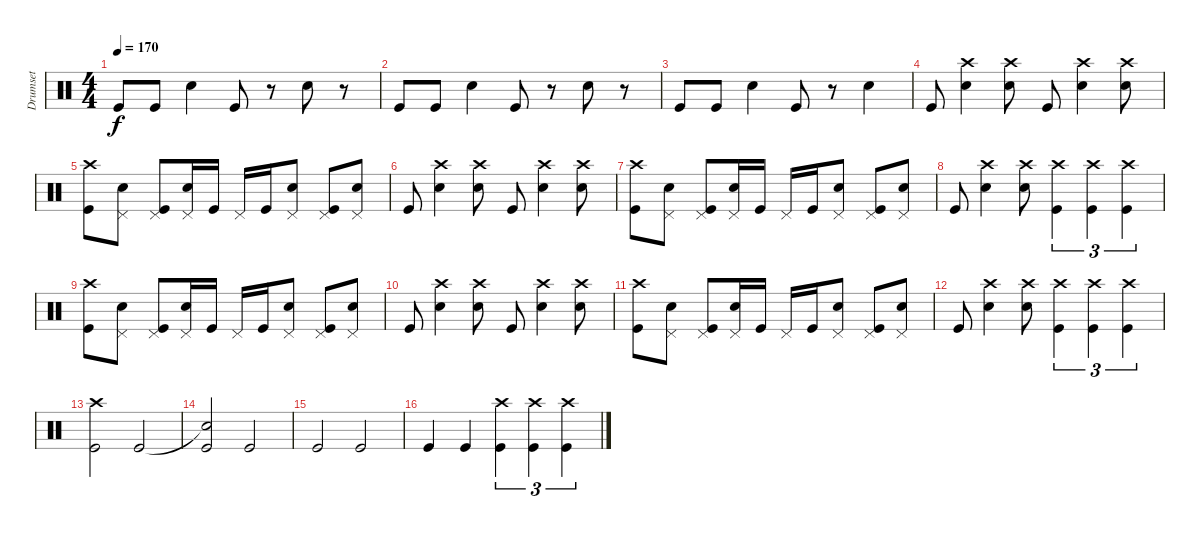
\track ("Drumset" "Drumset") {instrument percussion}
\staff {score}
\articulation defaults
\ts (4 4)
\tempo 170
\clef neutral
\ks c "Kick (hit)".8{dy f} "Kick (hit)".8 "Electric Snare (hit)".4 "Kick (hit)".8
r.8 "Electric Snare (hit)".8 r.8 |
"Kick (hit)".8 "Kick (hit)".8 "Electric Snare (hit)".4 "Kick (hit)".8 r.8 "Electric Snare (hit)".8 r.8 |
"Kick (hit)".8 "Kick (hit)".8 "Electric Snare (hit)".4 "Kick (hit)".8 r.8 "Electric Snare (hit)".4 |
"Kick (hit)".8 ("Crash high (hit)" "Electric Snare (hit)").4 ("Crash high (hit)" "Electric Snare (hit)").8 "Kick (hit)".8 ("Crash high (hit)" "Electric Snare (hit)").4 ("Crash high (hit)" "Electric Snare (hit)").8 |
("Crash high (hit)" "Kick (hit)").8 ("Pedal Hi-Hat (hit)" "Electric Snare (hit)").8 ("Pedal Hi-Hat (hit)" "Kick (hit)").8 ("Pedal Hi-Hat (hit)" "Electric Snare (hit)").16 "Kick (hit)".16 "Pedal Hi-Hat (hit)".16 "Kick (hit)".16 ("Pedal Hi-Hat (hit)" "Electric Snare (hit)").8 ("Pedal Hi-Hat (hit)" "Kick (hit)").8 ("Pedal Hi-Hat (hit)" "Electric Snare (hit)").8 |
"Kick (hit)".8 ("Crash high (hit)" "Electric Snare (hit)").4 ("Crash high (hit)" "Electric Snare (hit)").8 "Kick (hit)".8 ("Crash high (hit)" "Electric Snare (hit)").4 ("Crash high (hit)" "Electric Snare (hit)").8 |
("Crash high (hit)" "Kick (hit)").8 ("Pedal Hi-Hat (hit)" "Electric Snare (hit)").8 ("Pedal Hi-Hat (hit)" "Kick (hit)").8 ("Pedal Hi-Hat (hit)" "Electric Snare (hit)").16 "Kick (hit)".16 "Pedal Hi-Hat (hit)".16 "Kick (hit)".16 ("Pedal Hi-Hat (hit)" "Electric Snare (hit)").8 ("Pedal Hi-Hat (hit)" "Kick (hit)").8 ("Pedal Hi-Hat (hit)" "Electric Snare (hit)").8 |
"Kick (hit)".8 ("Crash high (hit)" "Electric Snare (hit)").4 ("Crash high (hit)" "Electric Snare (hit)").8 ("Crash high (hit)" "Kick (hit)").4{tu (3 2)} ("Crash high (hit)" "Kick (hit)").4{tu (3 2)} ("Crash high (hit)" "Kick (hit)").4{tu (3 2)} |
("Crash high (hit)" "Kick (hit)").8 ("Pedal Hi-Hat (hit)" "Electric Snare (hit)").8 ("Pedal Hi-Hat (hit)" "Kick (hit)").8 ("Pedal Hi-Hat (hit)" "Electric Snare (hit)").16 "Kick (hit)".16 "Pedal Hi-Hat (hit)".16 "Kick (hit)".16 ("Pedal Hi-Hat (hit)" "Electric Snare (hit)").8 ("Pedal Hi-Hat (hit)" "Kick (hit)").8 ("Pedal Hi-Hat (hit)" "Electric Snare (hit)").8 |
"Kick (hit)".8 ("Crash high (hit)" "Electric Snare (hit)").4 ("Crash high (hit)" "Electric Snare (hit)").8 "Kick (hit)".8 ("Crash high (hit)" "Electric Snare (hit)").4 ("Crash high (hit)" "Electric Snare (hit)").8 |
("Crash high (hit)" "Kick (hit)").8 ("Pedal Hi-Hat (hit)" "Electric Snare (hit)").8 ("Pedal Hi-Hat (hit)" "Kick (hit)").8 ("Pedal Hi-Hat (hit)" "Electric Snare (hit)").16 "Kick (hit)".16 "Pedal Hi-Hat (hit)".16 "Kick (hit)".16 ("Pedal Hi-Hat (hit)" "Electric Snare (hit)").8 ("Pedal Hi-Hat (hit)" "Kick (hit)").8 ("Pedal Hi-Hat (hit)" "Electric Snare (hit)").8 |
"Kick (hit)".8 ("Crash high (hit)" "Electric Snare (hit)").4 ("Crash high (hit)" "Electric Snare (hit)").8 ("Crash high (hit)" "Kick (hit)").4{tu (3 2)} ("Crash high (hit)" "Kick (hit)").4{tu (3 2)} ("Crash high (hit)" "Kick (hit)").4{tu (3 2)} |
("Crash high (hit)" "Kick (hit)").2 "Kick (hit)".2 |
("Snare (hit)"{t} "Kick (hit)").2 "Kick (hit)".2 |
"Kick (hit)".2 "Kick (hit)".2 |
"Kick (hit)".4 "Kick (hit)".4 ("Crash high (hit)" "Kick (hit)").4{tu (3 2)} ("Crash high (hit)" "Kick (hit)").4{tu (3 2)} ("Crash high (hit)" "Kick (hit)").4{tu (3 2)}
